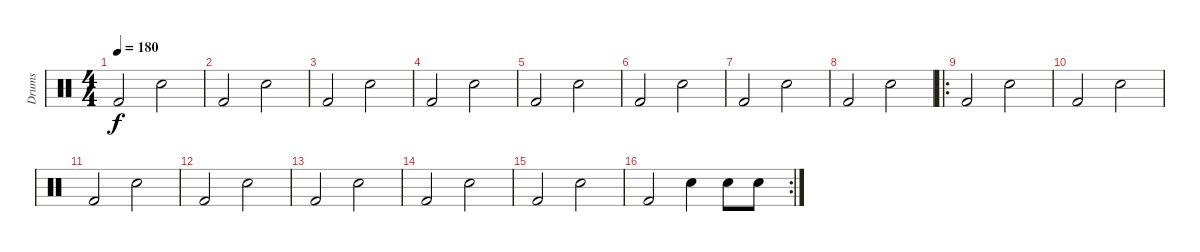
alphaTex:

\track ("Drums" "Drums") {instrument percussion}
\staff {score}
\articulation defaults
\ts (4 4)
\tempo 180
\clef neutral
\ks c "Kick (hit) 2".2{dy f} "Snare (hit) 2".2
|
"Kick (hit) 2".2 "Snare (hit) 2".2 |
"Kick (hit) 2".2 "Snare (hit) 2".2 |
"Kick (hit) 2".2 "Snare (hit) 2".2 |
"Kick (hit) 2".2 "Snare (hit) 2".2 |
"Kick (hit) 2".2 "Snare (hit) 2".2 |
"Kick (hit) 2".2 "Snare (hit) 2".2 |
"Kick (hit) 2".2 "Snare (hit) 2".2 |
\ro "Kick (hit) 2".2 "Snare (hit) 2".2
|
"Kick (hit) 2".2 "Snare (hit) 2".2 |
"Kick (hit) 2".2 "Snare (hit) 2".2 |
"Kick (hit) 2".2 "Snare (hit) 2".2 |
"Kick (hit) 2".2 "Snare (hit) 2".2 |
"Kick (hit) 2".2 "Snare (hit) 2".2 |
"Kick (hit) 2".2 "Snare (hit) 2".2 |
\rc 2 "Kick (hit) 2".2 "Snare (hit) 2".4 "Snare (hit) 2".8 "Snare (hit) 2".8
